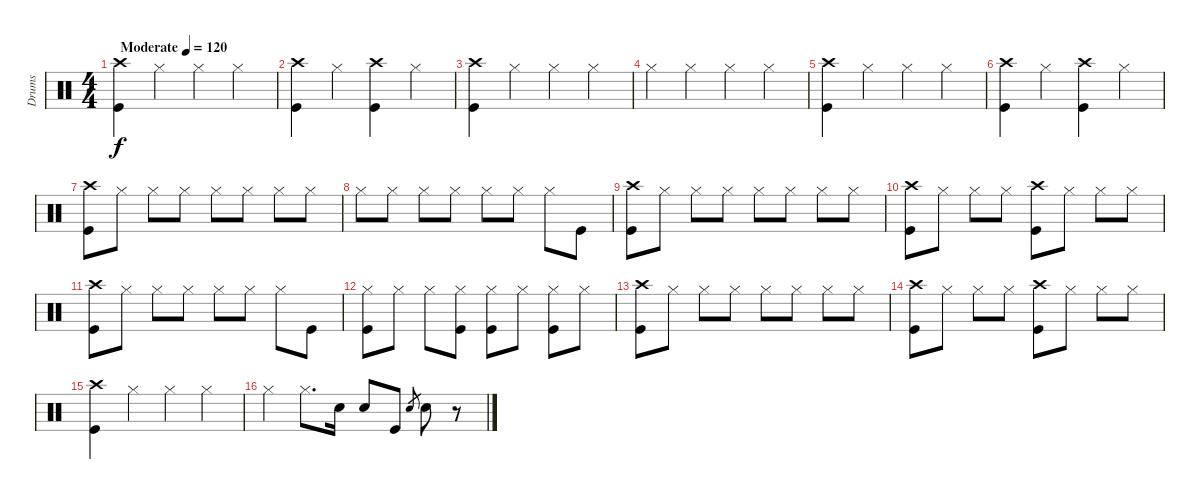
\track ("Drums" "Drums") {instrument percussion}
\staff {score}
\articulation defaults
\ts (4 4)
\tempo (120 "Moderate")
\clef neutral
\ks c
("Crash high (hit)" "Kick (hit)").4{dy f} "Hi-Hat (closed)".4 "Hi-Hat (closed)".4 "Hi-Hat (closed)".4 |
("Crash high (hit)" "Kick (hit)").4 "Hi-Hat (closed)".4 ("Crash high (hit)" "Kick (hit)").4 "Hi-Hat (closed)".4 |
("Crash high (hit)" "Kick (hit)").4 "Hi-Hat (closed)".4 "Hi-Hat (closed)".4 "Hi-Hat (closed)".4 |
"Hi-Hat (closed)".4 "Hi-Hat (closed)".4 "Hi-Hat (closed)".4 "Hi-Hat (closed)".4 |
("Crash high (hit)" "Kick (hit)").4 "Hi-Hat (closed)".4 "Hi-Hat (closed)".4 "Hi-Hat (closed)".4 |
("Crash high (hit)" "Kick (hit)").4 "Hi-Hat (closed)".4 ("Crash high (hit)" "Kick (hit)").4 "Hi-Hat (closed)".4 |
("Crash high (hit)" "Kick (hit)").8 "Hi-Hat (closed)".8 "Hi-Hat (closed)".8 "Hi-Hat (closed)".8 "Hi-Hat (closed)".8 "Hi-Hat (closed)".8 "Hi-Hat (closed)".8 "Hi-Hat (closed)".8 |
"Hi-Hat (closed)".8 "Hi-Hat (closed)".8 "Hi-Hat (closed)".8 "Hi-Hat (closed)".8 "Hi-Hat (closed)".8 "Hi-Hat (closed)".8 "Hi-Hat (closed)".8 "Kick (hit)".8 |
("Crash high (hit)" "Kick (hit)").8 "Hi-Hat (closed)".8 "Hi-Hat (closed)".8 "Hi-Hat (closed)".8 "Hi-Hat (closed)".8 "Hi-Hat (closed)".8 "Hi-Hat (closed)".8 "Hi-Hat (closed)".8 |
("Crash high (hit)" "Kick (hit)").8 "Hi-Hat (closed)".8 "Hi-Hat (closed)".8 "Hi-Hat (closed)".8 ("Crash high (hit)" "Kick (hit)").8 "Hi-Hat (closed)".8 "Hi-Hat (closed)".8 "Hi-Hat (closed)".8 |
("Crash high (hit)" "Kick (hit)").8 "Hi-Hat (closed)".8 "Hi-Hat (closed)".8 "Hi-Hat (closed)".8 "Hi-Hat (closed)".8 "Hi-Hat (closed)".8 "Hi-Hat (closed)".8 "Kick (hit)".8 |
("Hi-Hat (closed)" "Kick (hit)").8 "Hi-Hat (closed)".8 "Hi-Hat (closed)".8 ("Hi-Hat (closed)" "Kick (hit)").8 ("Hi-Hat (closed)" "Kick (hit)").8 "Hi-Hat (closed)".8 ("Hi-Hat (closed)" "Kick (hit)").8 "Hi-Hat (closed)".8 |
("Crash high (hit)" "Kick (hit)").8 "Hi-Hat (closed)".8 "Hi-Hat (closed)".8 "Hi-Hat (closed)".8 "Hi-Hat (closed)".8 "Hi-Hat (closed)".8 "Hi-Hat (closed)".8 "Hi-Hat (closed)".8 |
("Crash high (hit)" "Kick (hit)").8 "Hi-Hat (closed)".8 "Hi-Hat (closed)".8 "Hi-Hat (closed)".8 ("Crash high (hit)" "Kick (hit)").8 "Hi-Hat (closed)".8 "Hi-Hat (closed)".8 "Hi-Hat (closed)".8 |
("Crash high (hit)" "Kick (hit)").4 "Hi-Hat (closed)".4 "Hi-Hat (closed)".4 "Hi-Hat (closed)".4 |
"Hi-Hat (closed)".4 "Hi-Hat (closed)".8{d} "Snare (hit) 2".16 "Snare (hit) 2".8 "Kick (hit)".8 "Snare (hit) 2".8{gr} "Snare (hit) 2".8 r.8
